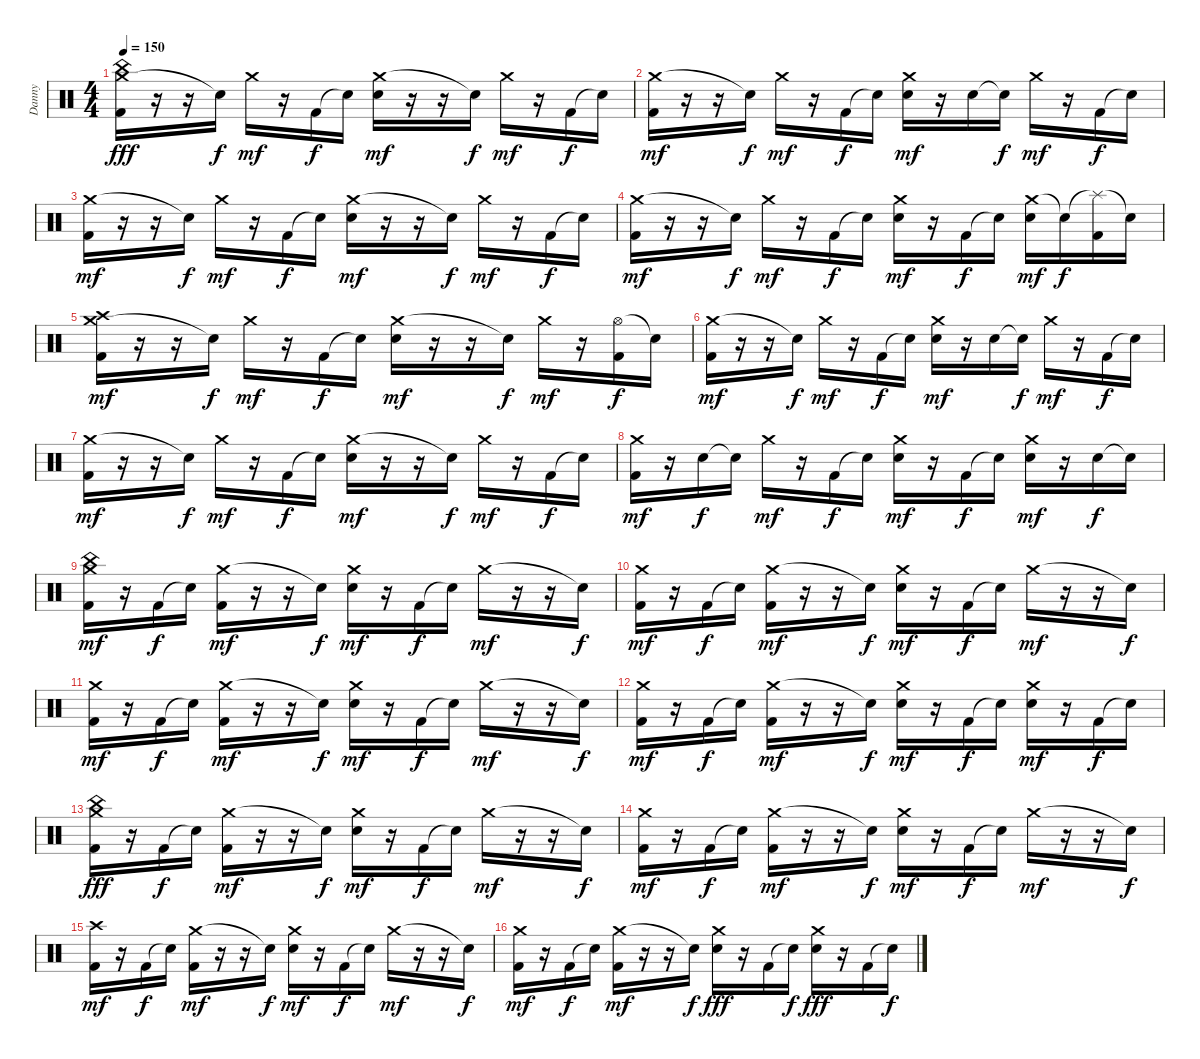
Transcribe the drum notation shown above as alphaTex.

\track ("Danny" "Danny") {instrument percussion}
\staff {score}
\articulation defaults
\ts (4 4)
\tempo 150
\clef neutral
\ks c
("Crash medium (hit)" "China (hit)" "Kick (hit) 2").16{dy fff} r.16 r.16 "Snare (hit)"{t}.16{dy f} "Crash medium (hit)".16{dy mf} r.16 "Kick (hit) 2".16{dy f} "Snare (hit)"{t}.16 ("Crash medium (hit)" "Snare (hit) 2").16{dy mf} r.16 r.16 "Snare (hit)"{t}.16{dy f} "Crash medium (hit)".16{dy mf} r.16 "Kick (hit) 2".16{dy f} "Snare (hit)"{t}.16 |
("Crash medium (hit)" "Kick (hit) 2").16{dy mf} r.16 r.16 "Snare (hit)"{t}.16{dy f} "Crash medium (hit)".16{dy mf} r.16 "Kick (hit) 2".16{dy f} "Snare (hit)"{t}.16 ("Crash medium (hit)" "Snare (hit) 2").16{dy mf} r.16 "Snare (hit) 2".16 "Snare (hit)"{t}.16{dy f} "Crash medium (hit)".16{dy mf} r.16 "Kick (hit) 2".16{dy f} "Snare (hit)"{t}.16 |
("Crash medium (hit)" "Kick (hit) 2").16{dy mf} r.16 r.16 "Snare (hit)"{t}.16{dy f} "Crash medium (hit)".16{dy mf} r.16 "Kick (hit) 2".16{dy f} "Snare (hit)"{t}.16 ("Crash medium (hit)" "Snare (hit) 2").16{dy mf} r.16 r.16 "Snare (hit)"{t}.16{dy f} "Crash medium (hit)".16{dy mf} r.16 "Kick (hit) 2".16{dy f} "Snare (hit)"{t}.16 |
("Crash medium (hit)" "Kick (hit) 2").16{dy mf} r.16 r.16 "Snare (hit)"{t}.16{dy f} "Crash medium (hit)".16{dy mf} r.16 "Kick (hit) 2".16{dy f} "Snare (hit)"{t}.16 ("Crash medium (hit)" "Snare (hit) 2").16{dy mf} r.16 "Kick (hit) 2".16{dy f} "Snare (hit)"{t}.16 ("Crash medium (hit)" "Snare (hit) 2").16{dy mf} "Snare (hit)"{t}.16{dy f} ("Splash (hit)"{t} "Kick (hit) 2").16 "Snare (hit)"{t}.16 |
("Crash medium (hit)" "Crash high (hit)" "Kick (hit) 2").16{dy mf} r.16 r.16 "Snare (hit)"{t}.16{dy f} "Crash medium (hit)".16{dy mf} r.16 "Kick (hit) 2".16{dy f} "Snare (hit)"{t}.16 ("Crash medium (hit)" "Snare (hit) 2").16{dy mf} r.16 r.16 "Snare (hit)"{t}.16{dy f} "Crash medium (hit)".16{dy mf} r.16 ("Hi-Hat (open)" "Kick (hit) 2").16{dy f} "Snare (hit)"{t}.16 |
("Crash medium (hit)" "Kick (hit) 2").16{dy mf} r.16 r.16 "Snare (hit)"{t}.16{dy f} "Crash medium (hit)".16{dy mf} r.16 "Kick (hit) 2".16{dy f} "Snare (hit)"{t}.16 ("Crash medium (hit)" "Snare (hit) 2").16{dy mf} r.16 "Snare (hit) 2".16 "Snare (hit)"{t}.16{dy f} "Crash medium (hit)".16{dy mf} r.16 "Kick (hit) 2".16{dy f} "Snare (hit)"{t}.16 |
("Crash medium (hit)" "Kick (hit) 2").16{dy mf} r.16 r.16 "Snare (hit)"{t}.16{dy f} "Crash medium (hit)".16{dy mf} r.16 "Kick (hit) 2".16{dy f} "Snare (hit)"{t}.16 ("Crash medium (hit)" "Snare (hit) 2").16{dy mf} r.16 r.16 "Snare (hit)"{t}.16{dy f} "Crash medium (hit)".16{dy mf} r.16 "Kick (hit) 2".16{dy f} "Snare (hit)"{t}.16 |
("Crash medium (hit)" "Kick (hit) 2").16{dy mf} r.16 "Snare (hit) 2".16{dy f} "Snare (hit)"{t}.16 "Crash medium (hit)".16{dy mf} r.16 "Kick (hit) 2".16{dy f} "Snare (hit)"{t}.16 ("Crash medium (hit)" "Electric Snare (hit)").16{dy mf} r.16 "Kick (hit) 2".16{dy f} "Snare (hit)"{t}.16 ("Crash medium (hit)" "Snare (hit) 2").16{dy mf} r.16 "Snare (hit) 2".16{dy f} "Snare (hit)"{t}.16 |
("China (hit)" "Crash medium (hit)" "Kick (hit) 2").16{dy mf} r.16 "Kick (hit) 2".16{dy f} "Snare (hit)"{t}.16 ("Crash medium (hit)" "Kick (hit) 2").16{dy mf} r.16 r.16 "Snare (hit)"{t}.16{dy f} ("Crash medium (hit)" "Snare (hit) 2").16{dy mf} r.16 "Kick (hit) 2".16{dy f} "Snare (hit)"{t}.16 "Crash medium (hit)".16{dy mf} r.16 r.16 "Snare (hit)"{t}.16{dy f} |
("Crash medium (hit)" "Kick (hit) 2").16{dy mf} r.16 "Kick (hit) 2".16{dy f} "Snare (hit)"{t}.16 ("Crash medium (hit)" "Kick (hit) 2").16{dy mf} r.16 r.16 "Snare (hit)"{t}.16{dy f} ("Crash medium (hit)" "Snare (hit) 2").16{dy mf} r.16 "Kick (hit) 2".16{dy f} "Snare (hit)"{t}.16 "Crash medium (hit)".16{dy mf} r.16 r.16 "Snare (hit)"{t}.16{dy f} |
("Crash medium (hit)" "Kick (hit) 2").16{dy mf} r.16 "Kick (hit) 2".16{dy f} "Snare (hit)"{t}.16 ("Crash medium (hit)" "Kick (hit) 2").16{dy mf} r.16 r.16 "Snare (hit)"{t}.16{dy f} ("Crash medium (hit)" "Snare (hit) 2").16{dy mf} r.16 "Kick (hit) 2".16{dy f} "Snare (hit)"{t}.16 "Crash medium (hit)".16{dy mf} r.16 r.16 "Snare (hit)"{t}.16{dy f} |
("Crash medium (hit)" "Kick (hit) 2").16{dy mf} r.16 "Kick (hit) 2".16{dy f} "Snare (hit)"{t}.16 ("Crash medium (hit)" "Kick (hit) 2").16{dy mf} r.16 r.16 "Snare (hit)"{t}.16{dy f} ("Crash medium (hit)" "Snare (hit) 2").16{dy mf} r.16 "Kick (hit) 2".16{dy f} "Snare (hit)"{t}.16 ("Crash medium (hit)" "Snare (hit) 2").16{dy mf} r.16 "Kick (hit) 2".16{dy f} "Snare (hit)"{t}.16 |
("Crash medium (hit)" "China (hit)" "Kick (hit) 2").16{dy fff} r.16 "Kick (hit) 2".16{dy f} "Snare (hit)"{t}.16 ("Crash medium (hit)" "Kick (hit) 2").16{dy mf} r.16 r.16 "Snare (hit)"{t}.16{dy f} ("Crash medium (hit)" "Snare (hit) 2").16{dy mf} r.16 "Kick (hit) 2".16{dy f} "Snare (hit)"{t}.16 "Crash medium (hit)".16{dy mf} r.16 r.16 "Snare (hit)"{t}.16{dy f} |
("Crash medium (hit)" "Kick (hit) 2").16{dy mf} r.16 "Kick (hit) 2".16{dy f} "Snare (hit)"{t}.16 ("Crash medium (hit)" "Kick (hit) 2").16{dy mf} r.16 r.16 "Snare (hit)"{t}.16{dy f} ("Crash medium (hit)" "Snare (hit) 2").16{dy mf} r.16 "Kick (hit) 2".16{dy f} "Snare (hit)"{t}.16 "Crash medium (hit)".16{dy mf} r.16 r.16 "Snare (hit)"{t}.16{dy f} |
("Crash high (hit)" "Kick (hit) 2").16{dy mf} r.16 "Kick (hit) 2".16{dy f} "Snare (hit)"{t}.16 ("Crash medium (hit)" "Kick (hit) 2").16{dy mf} r.16 r.16 "Snare (hit)"{t}.16{dy f} ("Crash medium (hit)" "Snare (hit) 2").16{dy mf} r.16 "Kick (hit) 2".16{dy f} "Snare (hit)"{t}.16 "Crash medium (hit)".16{dy mf} r.16 r.16 "Snare (hit)"{t}.16{dy f} |
("Crash medium (hit)" "Kick (hit) 2").16{dy mf} r.16 "Kick (hit) 2".16{dy f} "Snare (hit)"{t}.16 ("Crash medium (hit)" "Kick (hit) 2").16{dy mf} r.16 r.16 "Snare (hit)"{t}.16{dy f} ("Crash medium (hit)" "Snare (hit) 2").16{dy fff} r.16 "Kick (hit) 2".16 "Snare (hit)"{t}.16{dy f} ("Crash medium (hit)" "Snare (hit) 2").16{dy fff} r.16 "Kick (hit) 2".16 "Snare (hit)"{t}.16{dy f}
